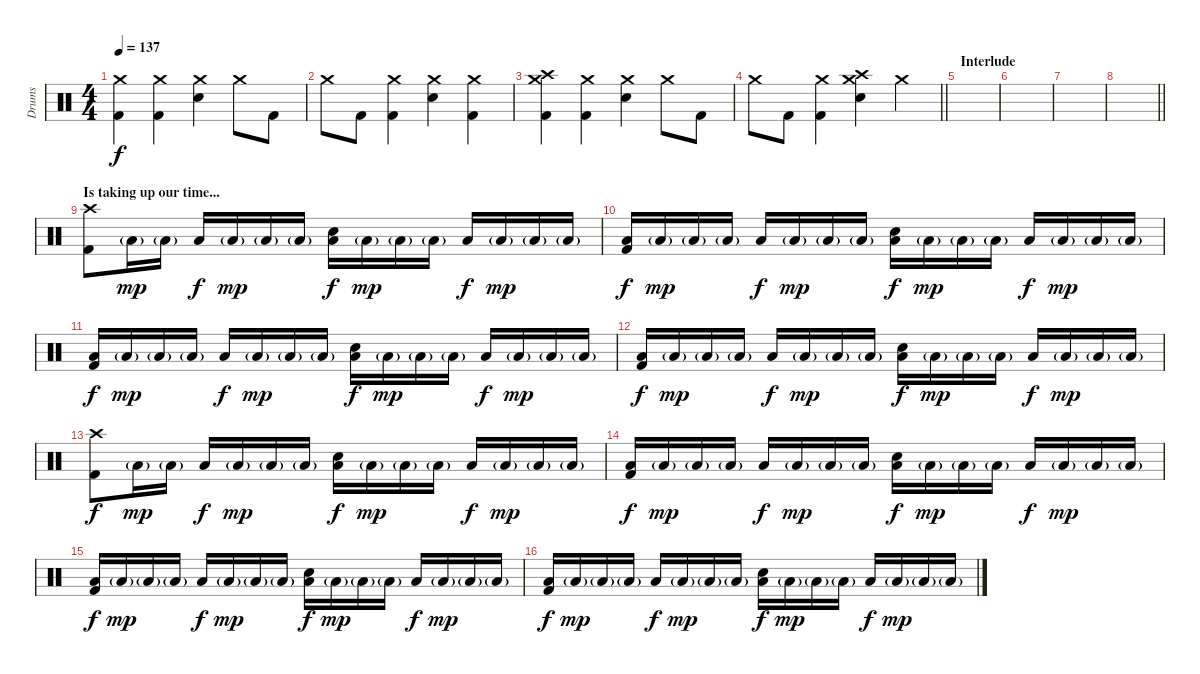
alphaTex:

\track ("Drums" "Drums") {instrument percussion}
\staff {score}
\articulation defaults
\ts (4 4)
\tempo 137
\clef neutral
\ks c
("Crash medium (hit)" "Kick (hit) 2").4{dy f} ("Crash medium (hit)" "Kick (hit) 2").4 ("Crash medium (hit)" "Electric Snare (hit)").4 "Crash medium (hit)".8 "Kick (hit) 2".8 |
"Crash medium (hit)".8 "Kick (hit) 2".8 ("Crash medium (hit)" "Kick (hit) 2").4 ("Crash medium (hit)" "Electric Snare (hit)").4 ("Crash medium (hit)" "Kick (hit) 2").4 |
("Crash high (hit)" "Crash medium (hit)" "Kick (hit) 2").4 ("Crash medium (hit)" "Kick (hit) 2").4 ("Crash medium (hit)" "Electric Snare (hit)").4 "Crash medium (hit)".8 "Kick (hit) 2".8 |
\barLineRight lightlight "Crash medium (hit)".8 "Kick (hit) 2".8
("Crash medium (hit)" "Kick (hit) 2").4 ("Crash high (hit)" "Crash medium (hit)" "Electric Snare (hit)").4 "Crash medium (hit)".4 |
\section ("" "Interlude")
|
|
|
\barLineRight lightlight
|
\section ("" "Is taking up our time...")
("Crash high (hit)" "Kick (hit) 2").8 "Low Floor Tom (hit)"{g}.16{dy mp} "Low Floor Tom (hit)"{g}.16 "Low Floor Tom (hit)".16{dy f} "Low Floor Tom (hit)"{g}.16{dy mp} "Low Floor Tom (hit)"{g}.16 "Low Floor Tom (hit)"{g}.16 ("Electric Snare (hit)" "Low Floor Tom (hit)").16{dy f} "Low Floor Tom (hit)"{g}.16{dy mp} "Low Floor Tom (hit)"{g}.16 "Low Floor Tom (hit)"{g}.16 "Low Floor Tom (hit)".16{dy f} "Low Floor Tom (hit)"{g}.16{dy mp} "Low Floor Tom (hit)"{g}.16 "Low Floor Tom (hit)"{g}.16 |
("Low Floor Tom (hit)" "Kick (hit) 2").16{dy f} "Low Floor Tom (hit)"{g}.16{dy mp} "Low Floor Tom (hit)"{g}.16 "Low Floor Tom (hit)"{g}.16 "Low Floor Tom (hit)".16{dy f} "Low Floor Tom (hit)"{g}.16{dy mp} "Low Floor Tom (hit)"{g}.16 "Low Floor Tom (hit)"{g}.16 ("Electric Snare (hit)" "Low Floor Tom (hit)").16{dy f} "Low Floor Tom (hit)"{g}.16{dy mp} "Low Floor Tom (hit)"{g}.16 "Low Floor Tom (hit)"{g}.16 "Low Floor Tom (hit)".16{dy f} "Low Floor Tom (hit)"{g}.16{dy mp} "Low Floor Tom (hit)"{g}.16 "Low Floor Tom (hit)"{g}.16 |
("Low Floor Tom (hit)" "Kick (hit) 2").16{dy f} "Low Floor Tom (hit)"{g}.16{dy mp} "Low Floor Tom (hit)"{g}.16 "Low Floor Tom (hit)"{g}.16 "Low Floor Tom (hit)".16{dy f} "Low Floor Tom (hit)"{g}.16{dy mp} "Low Floor Tom (hit)"{g}.16 "Low Floor Tom (hit)"{g}.16 ("Electric Snare (hit)" "Low Floor Tom (hit)").16{dy f} "Low Floor Tom (hit)"{g}.16{dy mp} "Low Floor Tom (hit)"{g}.16 "Low Floor Tom (hit)"{g}.16 "Low Floor Tom (hit)".16{dy f} "Low Floor Tom (hit)"{g}.16{dy mp} "Low Floor Tom (hit)"{g}.16 "Low Floor Tom (hit)"{g}.16 |
("Low Floor Tom (hit)" "Kick (hit) 2").16{dy f} "Low Floor Tom (hit)"{g}.16{dy mp} "Low Floor Tom (hit)"{g}.16 "Low Floor Tom (hit)"{g}.16 "Low Floor Tom (hit)".16{dy f} "Low Floor Tom (hit)"{g}.16{dy mp} "Low Floor Tom (hit)"{g}.16 "Low Floor Tom (hit)"{g}.16 ("Electric Snare (hit)" "Low Floor Tom (hit)").16{dy f} "Low Floor Tom (hit)"{g}.16{dy mp} "Low Floor Tom (hit)"{g}.16 "Low Floor Tom (hit)"{g}.16 "Low Floor Tom (hit)".16{dy f} "Low Floor Tom (hit)"{g}.16{dy mp} "Low Floor Tom (hit)"{g}.16 "Low Floor Tom (hit)"{g}.16 |
("Crash high (hit)" "Kick (hit) 2").8{dy f} "Low Floor Tom (hit)"{g}.16{dy mp} "Low Floor Tom (hit)"{g}.16 "Low Floor Tom (hit)".16{dy f} "Low Floor Tom (hit)"{g}.16{dy mp} "Low Floor Tom (hit)"{g}.16 "Low Floor Tom (hit)"{g}.16 ("Electric Snare (hit)" "Low Floor Tom (hit)").16{dy f} "Low Floor Tom (hit)"{g}.16{dy mp} "Low Floor Tom (hit)"{g}.16 "Low Floor Tom (hit)"{g}.16 "Low Floor Tom (hit)".16{dy f} "Low Floor Tom (hit)"{g}.16{dy mp} "Low Floor Tom (hit)"{g}.16 "Low Floor Tom (hit)"{g}.16 |
("Low Floor Tom (hit)" "Kick (hit) 2").16{dy f} "Low Floor Tom (hit)"{g}.16{dy mp} "Low Floor Tom (hit)"{g}.16 "Low Floor Tom (hit)"{g}.16 "Low Floor Tom (hit)".16{dy f} "Low Floor Tom (hit)"{g}.16{dy mp} "Low Floor Tom (hit)"{g}.16 "Low Floor Tom (hit)"{g}.16 ("Electric Snare (hit)" "Low Floor Tom (hit)").16{dy f} "Low Floor Tom (hit)"{g}.16{dy mp} "Low Floor Tom (hit)"{g}.16 "Low Floor Tom (hit)"{g}.16 "Low Floor Tom (hit)".16{dy f} "Low Floor Tom (hit)"{g}.16{dy mp} "Low Floor Tom (hit)"{g}.16 "Low Floor Tom (hit)"{g}.16 |
("Low Floor Tom (hit)" "Kick (hit) 2").16{dy f} "Low Floor Tom (hit)"{g}.16{dy mp} "Low Floor Tom (hit)"{g}.16 "Low Floor Tom (hit)"{g}.16 "Low Floor Tom (hit)".16{dy f} "Low Floor Tom (hit)"{g}.16{dy mp} "Low Floor Tom (hit)"{g}.16 "Low Floor Tom (hit)"{g}.16 ("Electric Snare (hit)" "Low Floor Tom (hit)").16{dy f} "Low Floor Tom (hit)"{g}.16{dy mp} "Low Floor Tom (hit)"{g}.16 "Low Floor Tom (hit)"{g}.16 "Low Floor Tom (hit)".16{dy f} "Low Floor Tom (hit)"{g}.16{dy mp} "Low Floor Tom (hit)"{g}.16 "Low Floor Tom (hit)"{g}.16 |
("Low Floor Tom (hit)" "Kick (hit) 2").16{dy f} "Low Floor Tom (hit)"{g}.16{dy mp} "Low Floor Tom (hit)"{g}.16 "Low Floor Tom (hit)"{g}.16 "Low Floor Tom (hit)".16{dy f} "Low Floor Tom (hit)"{g}.16{dy mp} "Low Floor Tom (hit)"{g}.16 "Low Floor Tom (hit)"{g}.16 ("Electric Snare (hit)" "Low Floor Tom (hit)").16{dy f} "Low Floor Tom (hit)"{g}.16{dy mp} "Low Floor Tom (hit)"{g}.16 "Low Floor Tom (hit)"{g}.16 "Low Floor Tom (hit)".16{dy f} "Low Floor Tom (hit)"{g}.16{dy mp} "Low Floor Tom (hit)"{g}.16 "Low Floor Tom (hit)"{g}.16
